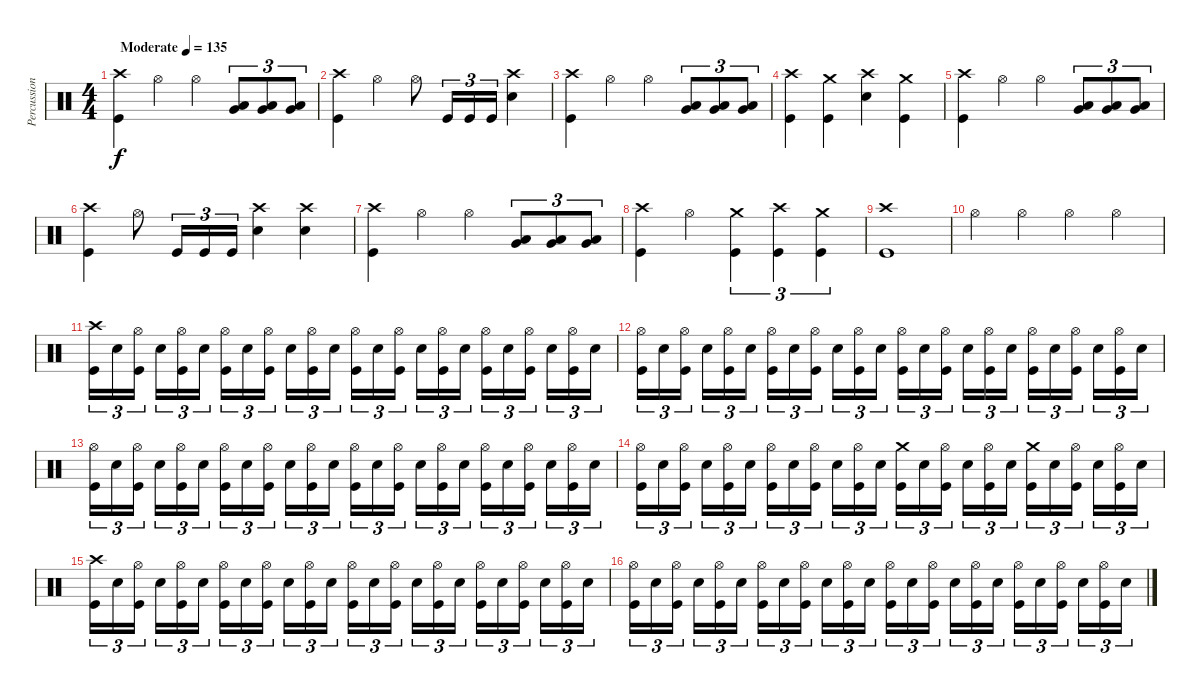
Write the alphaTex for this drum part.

\track ("Percussions" "Percussion") {instrument percussion}
\staff {score}
\articulation defaults
\ts (4 4)
\tempo (135 "Moderate")
\clef neutral
\ks c
("Crash high (hit)" "Kick (hit)").4{dy f} "Hi-Hat (open)".4 "Hi-Hat (open)".4 ("Low Tom (hit)" "Very Low Tom (hit)").8{tu (3 2)} ("Low Tom (hit)" "Very Low Tom (hit)").8{tu (3 2)} ("Low Tom (hit)" "Very Low Tom (hit)").8{tu (3 2)} |
("Crash high (hit)" "Kick (hit)").4 "Hi-Hat (open)".4 "Hi-Hat (open)".8 "Kick (hit)".16{tu (3 2)} "Kick (hit)".16{tu (3 2)} "Kick (hit)".16{tu (3 2)} ("Crash high (hit)" "Electric Snare (hit)").4 |
("Crash high (hit)" "Kick (hit)").4 "Hi-Hat (open)".4 "Hi-Hat (open)".4 ("Low Tom (hit)" "Very Low Tom (hit)").8{tu (3 2)} ("Low Tom (hit)" "Very Low Tom (hit)").8{tu (3 2)} ("Low Tom (hit)" "Very Low Tom (hit)").8{tu (3 2)} |
("Crash high (hit)" "Kick (hit)").4 ("Crash medium (hit)" "Kick (hit)").4 ("Crash high (hit)" "Electric Snare (hit)").4 ("Crash medium (hit)" "Kick (hit)").4 |
("Crash high (hit)" "Kick (hit)").4 "Hi-Hat (open)".4 "Hi-Hat (open)".4 ("Low Tom (hit)" "Very Low Tom (hit)").8{tu (3 2)} ("Low Tom (hit)" "Very Low Tom (hit)").8{tu (3 2)} ("Low Tom (hit)" "Very Low Tom (hit)").8{tu (3 2)} |
("Crash high (hit)" "Kick (hit)").4 "Hi-Hat (open)".8 "Kick (hit)".16{tu (3 2)} "Kick (hit)".16{tu (3 2)} "Kick (hit)".16{tu (3 2)} ("Crash high (hit)" "Electric Snare (hit)").4 ("Crash high (hit)" "Electric Snare (hit)").4 |
("Crash high (hit)" "Kick (hit)").4 "Hi-Hat (open)".4 "Hi-Hat (open)".4 ("Low Tom (hit)" "Very Low Tom (hit)").8{tu (3 2)} ("Low Tom (hit)" "Very Low Tom (hit)").8{tu (3 2)} ("Low Tom (hit)" "Very Low Tom (hit)").8{tu (3 2)} |
("Crash high (hit)" "Kick (hit)").4 "Hi-Hat (open)".4 ("Crash medium (hit)" "Kick (hit)").4{tu (3 2)} ("Crash high (hit)" "Kick (hit)").4{tu (3 2)} ("Crash medium (hit)" "Kick (hit)").4{tu (3 2)} |
("Crash high (hit)" "Kick (hit)").1 |
"Hi-Hat (open)".4 "Hi-Hat (open)".4 "Hi-Hat (open)".4 "Hi-Hat (open)".4 |
("Crash high (hit)" "Kick (hit)").16{tu (3 2)} "Electric Snare (hit)".16{tu (3 2)} ("Hi-Hat (open)" "Kick (hit)").16{tu (3 2) beam splitsecondary} "Electric Snare (hit)".16{tu (3 2)} ("Hi-Hat (open)" "Kick (hit)").16{tu (3 2)} "Electric Snare (hit)".16{tu (3 2)} ("Hi-Hat (open)" "Kick (hit)").16{tu (3 2)} "Electric Snare (hit)".16{tu (3 2)} ("Hi-Hat (open)" "Kick (hit)").16{tu (3 2) beam splitsecondary} "Electric Snare (hit)".16{tu (3 2)} ("Hi-Hat (open)" "Kick (hit)").16{tu (3 2)} "Electric Snare (hit)".16{tu (3 2)} ("Hi-Hat (open)" "Kick (hit)").16{tu (3 2)} "Electric Snare (hit)".16{tu (3 2)} ("Hi-Hat (open)" "Kick (hit)").16{tu (3 2) beam splitsecondary} "Electric Snare (hit)".16{tu (3 2)} ("Hi-Hat (open)" "Kick (hit)").16{tu (3 2)} "Electric Snare (hit)".16{tu (3 2)} ("Hi-Hat (open)" "Kick (hit)").16{tu (3 2)} "Electric Snare (hit)".16{tu (3 2)} ("Hi-Hat (open)" "Kick (hit)").16{tu (3 2) beam splitsecondary} "Electric Snare (hit)".16{tu (3 2)} ("Hi-Hat (open)" "Kick (hit)").16{tu (3 2)} "Electric Snare (hit)".16{tu (3 2)} |
("Hi-Hat (open)" "Kick (hit)").16{tu (3 2)} "Electric Snare (hit)".16{tu (3 2)} ("Hi-Hat (open)" "Kick (hit)").16{tu (3 2) beam splitsecondary} "Electric Snare (hit)".16{tu (3 2)} ("Hi-Hat (open)" "Kick (hit)").16{tu (3 2)} "Electric Snare (hit)".16{tu (3 2)} ("Hi-Hat (open)" "Kick (hit)").16{tu (3 2)} "Electric Snare (hit)".16{tu (3 2)} ("Hi-Hat (open)" "Kick (hit)").16{tu (3 2) beam splitsecondary} "Electric Snare (hit)".16{tu (3 2)} ("Hi-Hat (open)" "Kick (hit)").16{tu (3 2)} "Electric Snare (hit)".16{tu (3 2)} ("Hi-Hat (open)" "Kick (hit)").16{tu (3 2)} "Electric Snare (hit)".16{tu (3 2)} ("Hi-Hat (open)" "Kick (hit)").16{tu (3 2) beam splitsecondary} "Electric Snare (hit)".16{tu (3 2)} ("Hi-Hat (open)" "Kick (hit)").16{tu (3 2)} "Electric Snare (hit)".16{tu (3 2)} ("Hi-Hat (open)" "Kick (hit)").16{tu (3 2)} "Electric Snare (hit)".16{tu (3 2)} ("Hi-Hat (open)" "Kick (hit)").16{tu (3 2) beam splitsecondary} "Electric Snare (hit)".16{tu (3 2)} ("Hi-Hat (open)" "Kick (hit)").16{tu (3 2)} "Electric Snare (hit)".16{tu (3 2)} |
("Hi-Hat (open)" "Kick (hit)").16{tu (3 2)} "Electric Snare (hit)".16{tu (3 2)} ("Hi-Hat (open)" "Kick (hit)").16{tu (3 2) beam splitsecondary} "Electric Snare (hit)".16{tu (3 2)} ("Hi-Hat (open)" "Kick (hit)").16{tu (3 2)} "Electric Snare (hit)".16{tu (3 2)} ("Hi-Hat (open)" "Kick (hit)").16{tu (3 2)} "Electric Snare (hit)".16{tu (3 2)} ("Hi-Hat (open)" "Kick (hit)").16{tu (3 2) beam splitsecondary} "Electric Snare (hit)".16{tu (3 2)} ("Hi-Hat (open)" "Kick (hit)").16{tu (3 2)} "Electric Snare (hit)".16{tu (3 2)} ("Hi-Hat (open)" "Kick (hit)").16{tu (3 2)} "Electric Snare (hit)".16{tu (3 2)} ("Hi-Hat (open)" "Kick (hit)").16{tu (3 2) beam splitsecondary} "Electric Snare (hit)".16{tu (3 2)} ("Hi-Hat (open)" "Kick (hit)").16{tu (3 2)} "Electric Snare (hit)".16{tu (3 2)} ("Hi-Hat (open)" "Kick (hit)").16{tu (3 2)} "Electric Snare (hit)".16{tu (3 2)} ("Hi-Hat (open)" "Kick (hit)").16{tu (3 2) beam splitsecondary} "Electric Snare (hit)".16{tu (3 2)} ("Hi-Hat (open)" "Kick (hit)").16{tu (3 2)} "Electric Snare (hit)".16{tu (3 2)} |
("Hi-Hat (open)" "Kick (hit)").16{tu (3 2)} "Electric Snare (hit)".16{tu (3 2)} ("Hi-Hat (open)" "Kick (hit)").16{tu (3 2) beam splitsecondary} "Electric Snare (hit)".16{tu (3 2)} ("Hi-Hat (open)" "Kick (hit)").16{tu (3 2)} "Electric Snare (hit)".16{tu (3 2)} ("Hi-Hat (open)" "Kick (hit)").16{tu (3 2)} "Electric Snare (hit)".16{tu (3 2)} ("Hi-Hat (open)" "Kick (hit)").16{tu (3 2) beam splitsecondary} "Electric Snare (hit)".16{tu (3 2)} ("Hi-Hat (open)" "Kick (hit)").16{tu (3 2)} "Electric Snare (hit)".16{tu (3 2)} ("Crash medium (hit)" "Kick (hit)").16{tu (3 2)} "Electric Snare (hit)".16{tu (3 2)} ("Hi-Hat (open)" "Kick (hit)").16{tu (3 2) beam splitsecondary} "Electric Snare (hit)".16{tu (3 2)} ("Hi-Hat (open)" "Kick (hit)").16{tu (3 2)} "Electric Snare (hit)".16{tu (3 2)} ("Crash medium (hit)" "Kick (hit)").16{tu (3 2)} "Electric Snare (hit)".16{tu (3 2)} ("Hi-Hat (open)" "Kick (hit)").16{tu (3 2) beam splitsecondary} "Electric Snare (hit)".16{tu (3 2)} ("Hi-Hat (open)" "Kick (hit)").16{tu (3 2)} "Electric Snare (hit)".16{tu (3 2)} |
("Crash high (hit)" "Kick (hit)").16{tu (3 2)} "Electric Snare (hit)".16{tu (3 2)} ("Hi-Hat (open)" "Kick (hit)").16{tu (3 2) beam splitsecondary} "Electric Snare (hit)".16{tu (3 2)} ("Hi-Hat (open)" "Kick (hit)").16{tu (3 2)} "Electric Snare (hit)".16{tu (3 2)} ("Hi-Hat (open)" "Kick (hit)").16{tu (3 2)} "Electric Snare (hit)".16{tu (3 2)} ("Hi-Hat (open)" "Kick (hit)").16{tu (3 2) beam splitsecondary} "Electric Snare (hit)".16{tu (3 2)} ("Hi-Hat (open)" "Kick (hit)").16{tu (3 2)} "Electric Snare (hit)".16{tu (3 2)} ("Hi-Hat (open)" "Kick (hit)").16{tu (3 2)} "Electric Snare (hit)".16{tu (3 2)} ("Hi-Hat (open)" "Kick (hit)").16{tu (3 2) beam splitsecondary} "Electric Snare (hit)".16{tu (3 2)} ("Hi-Hat (open)" "Kick (hit)").16{tu (3 2)} "Electric Snare (hit)".16{tu (3 2)} ("Hi-Hat (open)" "Kick (hit)").16{tu (3 2)} "Electric Snare (hit)".16{tu (3 2)} ("Hi-Hat (open)" "Kick (hit)").16{tu (3 2) beam splitsecondary} "Electric Snare (hit)".16{tu (3 2)} ("Hi-Hat (open)" "Kick (hit)").16{tu (3 2)} "Electric Snare (hit)".16{tu (3 2)} |
("Hi-Hat (open)" "Kick (hit)").16{tu (3 2)} "Electric Snare (hit)".16{tu (3 2)} ("Hi-Hat (open)" "Kick (hit)").16{tu (3 2) beam splitsecondary} "Electric Snare (hit)".16{tu (3 2)} ("Hi-Hat (open)" "Kick (hit)").16{tu (3 2)} "Electric Snare (hit)".16{tu (3 2)} ("Hi-Hat (open)" "Kick (hit)").16{tu (3 2)} "Electric Snare (hit)".16{tu (3 2)} ("Hi-Hat (open)" "Kick (hit)").16{tu (3 2) beam splitsecondary} "Electric Snare (hit)".16{tu (3 2)} ("Hi-Hat (open)" "Kick (hit)").16{tu (3 2)} "Electric Snare (hit)".16{tu (3 2)} ("Hi-Hat (open)" "Kick (hit)").16{tu (3 2)} "Electric Snare (hit)".16{tu (3 2)} ("Hi-Hat (open)" "Kick (hit)").16{tu (3 2) beam splitsecondary} "Electric Snare (hit)".16{tu (3 2)} ("Hi-Hat (open)" "Kick (hit)").16{tu (3 2)} "Electric Snare (hit)".16{tu (3 2)} ("Hi-Hat (open)" "Kick (hit)").16{tu (3 2)} "Electric Snare (hit)".16{tu (3 2)} ("Hi-Hat (open)" "Kick (hit)").16{tu (3 2) beam splitsecondary} "Electric Snare (hit)".16{tu (3 2)} ("Hi-Hat (open)" "Kick (hit)").16{tu (3 2)} "Electric Snare (hit)".16{tu (3 2)}
